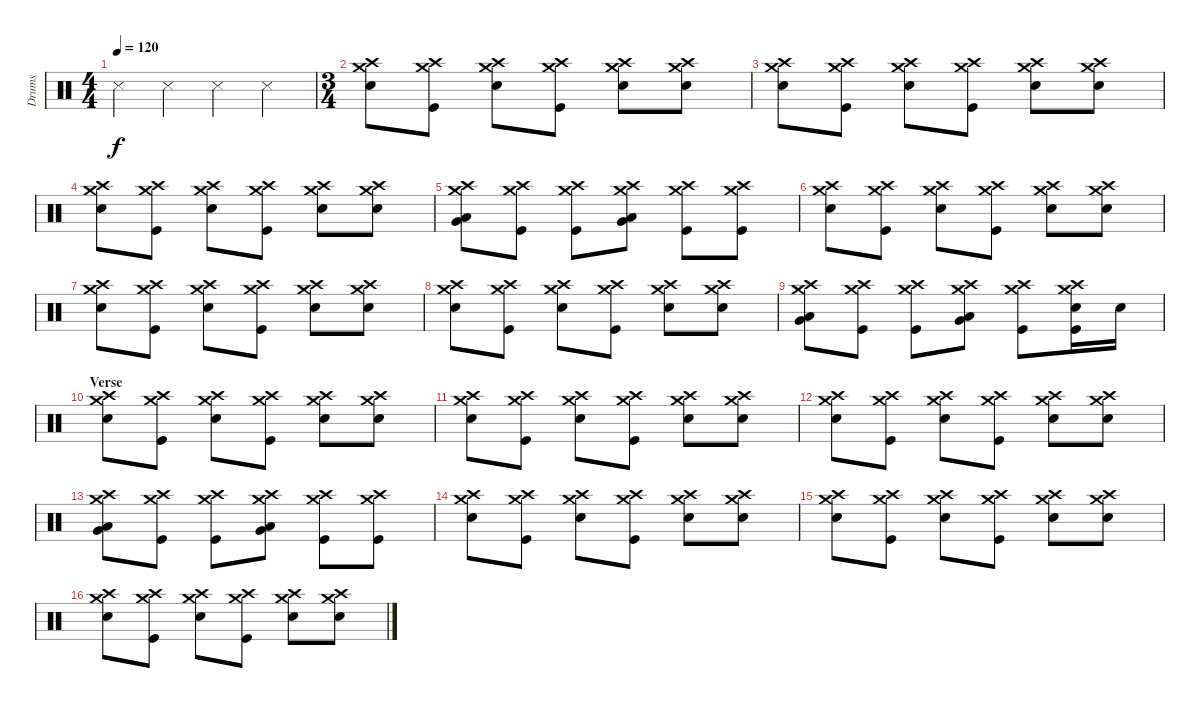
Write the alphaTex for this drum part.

\track ("Drums" "Drums") {instrument percussion}
\staff {score}
\articulation defaults
\ts (4 4)
\tempo 120
\clef neutral
\ks c "Snare (side stick) 3".4{dy f} "Snare (side stick) 3".4 "Snare (side stick) 3".4 "Snare (side stick) 3".4
|
\ts (3 4)
("Crash high (hit)" "Crash medium (hit)" "Electric Snare (hit)").8 ("Crash high (hit)" "Crash medium (hit)" "Kick (hit)").8 ("Crash high (hit)" "Crash medium (hit)" "Electric Snare (hit)").8 ("Crash high (hit)" "Crash medium (hit)" "Kick (hit)").8 ("Crash high (hit)" "Crash medium (hit)" "Electric Snare (hit)").8 ("Crash high (hit)" "Crash medium (hit)" "Electric Snare (hit)").8 |
("Crash high (hit)" "Crash medium (hit)" "Electric Snare (hit)").8 ("Crash high (hit)" "Crash medium (hit)" "Kick (hit)").8 ("Crash high (hit)" "Crash medium (hit)" "Electric Snare (hit)").8 ("Crash high (hit)" "Crash medium (hit)" "Kick (hit)").8 ("Crash high (hit)" "Crash medium (hit)" "Electric Snare (hit)").8 ("Crash high (hit)" "Crash medium (hit)" "Electric Snare (hit)").8 |
("Crash high (hit)" "Crash medium (hit)" "Electric Snare (hit)").8 ("Crash high (hit)" "Crash medium (hit)" "Kick (hit)").8 ("Crash high (hit)" "Crash medium (hit)" "Electric Snare (hit)").8 ("Crash high (hit)" "Crash medium (hit)" "Kick (hit)").8 ("Crash high (hit)" "Crash medium (hit)" "Electric Snare (hit)").8 ("Crash high (hit)" "Crash medium (hit)" "Electric Snare (hit)").8 |
("Crash high (hit)" "Crash medium (hit)" "Low Tom (hit)" "Very Low Tom (hit)").8 ("Crash high (hit)" "Crash medium (hit)" "Kick (hit)").8 ("Crash high (hit)" "Crash medium (hit)" "Kick (hit)").8 ("Crash high (hit)" "Crash medium (hit)" "Low Tom (hit)" "Very Low Tom (hit)").8 ("Crash high (hit)" "Crash medium (hit)" "Kick (hit)").8 ("Crash high (hit)" "Crash medium (hit)" "Kick (hit)").8 |
("Crash high (hit)" "Crash medium (hit)" "Electric Snare (hit)").8 ("Crash high (hit)" "Crash medium (hit)" "Kick (hit)").8 ("Crash high (hit)" "Crash medium (hit)" "Electric Snare (hit)").8 ("Crash high (hit)" "Crash medium (hit)" "Kick (hit)").8 ("Crash high (hit)" "Crash medium (hit)" "Electric Snare (hit)").8 ("Crash high (hit)" "Crash medium (hit)" "Electric Snare (hit)").8 |
("Crash high (hit)" "Crash medium (hit)" "Electric Snare (hit)").8 ("Crash high (hit)" "Crash medium (hit)" "Kick (hit)").8 ("Crash high (hit)" "Crash medium (hit)" "Electric Snare (hit)").8 ("Crash high (hit)" "Crash medium (hit)" "Kick (hit)").8 ("Crash high (hit)" "Crash medium (hit)" "Electric Snare (hit)").8 ("Crash high (hit)" "Crash medium (hit)" "Electric Snare (hit)").8 |
("Crash high (hit)" "Crash medium (hit)" "Electric Snare (hit)").8 ("Crash high (hit)" "Crash medium (hit)" "Kick (hit)").8 ("Crash high (hit)" "Crash medium (hit)" "Electric Snare (hit)").8 ("Crash high (hit)" "Crash medium (hit)" "Kick (hit)").8 ("Crash high (hit)" "Crash medium (hit)" "Electric Snare (hit)").8 ("Crash high (hit)" "Crash medium (hit)" "Electric Snare (hit)").8 |
("Crash high (hit)" "Crash medium (hit)" "Low Tom (hit)" "Very Low Tom (hit)").8 ("Crash high (hit)" "Crash medium (hit)" "Kick (hit)").8 ("Crash high (hit)" "Crash medium (hit)" "Kick (hit)").8 ("Crash high (hit)" "Crash medium (hit)" "Low Tom (hit)" "Very Low Tom (hit)").8 ("Crash high (hit)" "Crash medium (hit)" "Kick (hit)").8 ("Crash high (hit)" "Crash medium (hit)" "Electric Snare (hit)" "Kick (hit)").16 "Electric Snare (hit)".16 |
\section ("" "Verse")
("Crash high (hit)" "Crash medium (hit)" "Electric Snare (hit)").8 ("Crash high (hit)" "Crash medium (hit)" "Kick (hit)").8 ("Crash high (hit)" "Crash medium (hit)" "Electric Snare (hit)").8 ("Crash high (hit)" "Crash medium (hit)" "Kick (hit)").8 ("Crash high (hit)" "Crash medium (hit)" "Electric Snare (hit)").8 ("Crash high (hit)" "Crash medium (hit)" "Electric Snare (hit)").8 |
("Crash high (hit)" "Crash medium (hit)" "Electric Snare (hit)").8 ("Crash high (hit)" "Crash medium (hit)" "Kick (hit)").8 ("Crash high (hit)" "Crash medium (hit)" "Electric Snare (hit)").8 ("Crash high (hit)" "Crash medium (hit)" "Kick (hit)").8 ("Crash high (hit)" "Crash medium (hit)" "Electric Snare (hit)").8 ("Crash high (hit)" "Crash medium (hit)" "Electric Snare (hit)").8 |
("Crash high (hit)" "Crash medium (hit)" "Electric Snare (hit)").8 ("Crash high (hit)" "Crash medium (hit)" "Kick (hit)").8 ("Crash high (hit)" "Crash medium (hit)" "Electric Snare (hit)").8 ("Crash high (hit)" "Crash medium (hit)" "Kick (hit)").8 ("Crash high (hit)" "Crash medium (hit)" "Electric Snare (hit)").8 ("Crash high (hit)" "Crash medium (hit)" "Electric Snare (hit)").8 |
("Crash high (hit)" "Crash medium (hit)" "Low Tom (hit)" "Very Low Tom (hit)").8 ("Crash high (hit)" "Crash medium (hit)" "Kick (hit)").8 ("Crash high (hit)" "Crash medium (hit)" "Kick (hit)").8 ("Crash high (hit)" "Crash medium (hit)" "Low Tom (hit)" "Very Low Tom (hit)").8 ("Crash high (hit)" "Crash medium (hit)" "Kick (hit)").8 ("Crash high (hit)" "Crash medium (hit)" "Kick (hit)").8 |
("Crash high (hit)" "Crash medium (hit)" "Electric Snare (hit)").8 ("Crash high (hit)" "Crash medium (hit)" "Kick (hit)").8 ("Crash high (hit)" "Crash medium (hit)" "Electric Snare (hit)").8 ("Crash high (hit)" "Crash medium (hit)" "Kick (hit)").8 ("Crash high (hit)" "Crash medium (hit)" "Electric Snare (hit)").8 ("Crash high (hit)" "Crash medium (hit)" "Electric Snare (hit)").8 |
("Crash high (hit)" "Crash medium (hit)" "Electric Snare (hit)").8 ("Crash high (hit)" "Crash medium (hit)" "Kick (hit)").8 ("Crash high (hit)" "Crash medium (hit)" "Electric Snare (hit)").8 ("Crash high (hit)" "Crash medium (hit)" "Kick (hit)").8 ("Crash high (hit)" "Crash medium (hit)" "Electric Snare (hit)").8 ("Crash high (hit)" "Crash medium (hit)" "Electric Snare (hit)").8 |
("Crash high (hit)" "Crash medium (hit)" "Electric Snare (hit)").8 ("Crash high (hit)" "Crash medium (hit)" "Kick (hit)").8 ("Crash high (hit)" "Crash medium (hit)" "Electric Snare (hit)").8 ("Crash high (hit)" "Crash medium (hit)" "Kick (hit)").8 ("Crash high (hit)" "Crash medium (hit)" "Electric Snare (hit)").8 ("Crash high (hit)" "Crash medium (hit)" "Electric Snare (hit)").8
